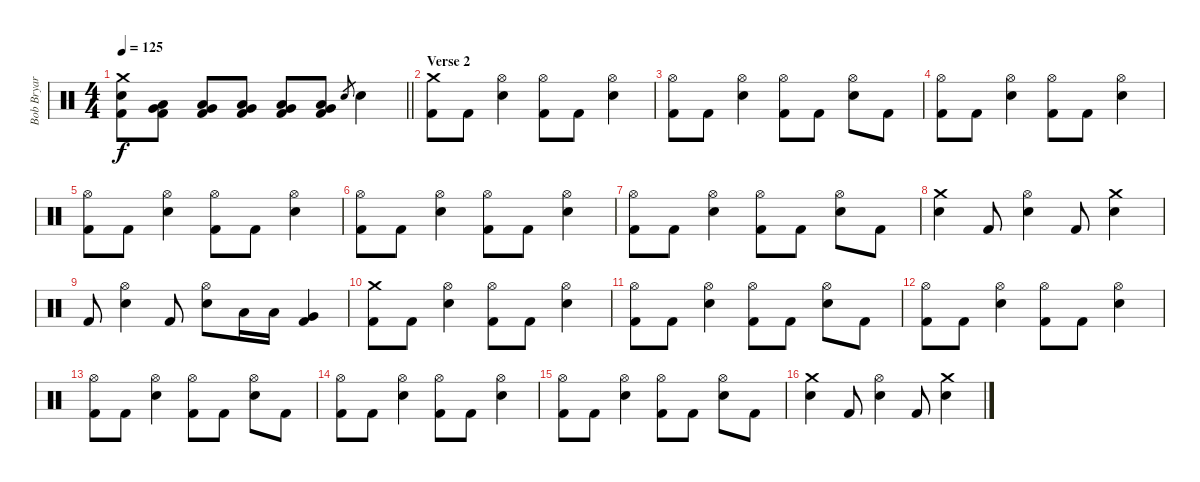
\track ("Bob Bryar" "Bob Bryar") {instrument percussion}
\staff {score}
\articulation defaults
\ts (4 4)
\tempo 125
\clef neutral
\barLineRight lightlight
\ks c
("Crash medium (hit)" "Electric Snare (hit)" "Kick (hit) 2").8{dy f} ("Very Low Tom (hit)" "Low Floor Tom (hit)" "Kick (hit) 2").8 ("Very Low Tom (hit)" "Low Floor Tom (hit)" "Kick (hit) 2").8 ("Very Low Tom (hit)" "Low Floor Tom (hit)" "Kick (hit) 2").8 ("Very Low Tom (hit)" "Low Floor Tom (hit)" "Kick (hit) 2").8 ("Very Low Tom (hit)" "Low Floor Tom (hit)" "Kick (hit) 2").8 "Electric Snare (hit)".8{gr} "Electric Snare (hit)".4 |
\section ("" "Verse 2")
("Crash medium (hit)" "Kick (hit) 2").8 "Kick (hit) 2".8 ("Hi-Hat (open)" "Electric Snare (hit)").4 ("Hi-Hat (open)" "Kick (hit) 2").8 "Kick (hit) 2".8 ("Hi-Hat (open)" "Electric Snare (hit)").4 |
("Hi-Hat (open)" "Kick (hit) 2").8 "Kick (hit) 2".8 ("Hi-Hat (open)" "Electric Snare (hit)").4 ("Hi-Hat (open)" "Kick (hit) 2").8 "Kick (hit) 2".8 ("Hi-Hat (open)" "Electric Snare (hit)").8 "Kick (hit) 2".8 |
("Hi-Hat (open)" "Kick (hit) 2").8 "Kick (hit) 2".8 ("Hi-Hat (open)" "Electric Snare (hit)").4 ("Hi-Hat (open)" "Kick (hit) 2").8 "Kick (hit) 2".8 ("Hi-Hat (open)" "Electric Snare (hit)").4 |
("Hi-Hat (open)" "Kick (hit) 2").8 "Kick (hit) 2".8 ("Hi-Hat (open)" "Electric Snare (hit)").4 ("Hi-Hat (open)" "Kick (hit) 2").8 "Kick (hit) 2".8 ("Hi-Hat (open)" "Electric Snare (hit)").4 |
("Hi-Hat (open)" "Kick (hit) 2").8 "Kick (hit) 2".8 ("Hi-Hat (open)" "Electric Snare (hit)").4 ("Hi-Hat (open)" "Kick (hit) 2").8 "Kick (hit) 2".8 ("Hi-Hat (open)" "Electric Snare (hit)").4 |
("Hi-Hat (open)" "Kick (hit) 2").8 "Kick (hit) 2".8 ("Hi-Hat (open)" "Electric Snare (hit)").4 ("Hi-Hat (open)" "Kick (hit) 2").8 "Kick (hit) 2".8 ("Hi-Hat (open)" "Electric Snare (hit)").8 "Kick (hit) 2".8 |
("Crash medium (hit)" "Electric Snare (hit)").4 "Kick (hit) 2".8 ("Hi-Hat (open)" "Electric Snare (hit)").4 "Kick (hit) 2".8 ("Crash medium (hit)" "Electric Snare (hit)").4 |
"Kick (hit) 2".8 ("Hi-Hat (open)" "Electric Snare (hit)").4 "Kick (hit) 2".8 ("Hi-Hat (open)" "Electric Snare (hit)").8 "Low Floor Tom (hit)".16 "Low Floor Tom (hit)".16 ("Very Low Tom (hit)" "Kick (hit) 2").4 |
("Crash medium (hit)" "Kick (hit) 2").8 "Kick (hit) 2".8 ("Hi-Hat (open)" "Electric Snare (hit)").4 ("Hi-Hat (open)" "Kick (hit) 2").8 "Kick (hit) 2".8 ("Hi-Hat (open)" "Electric Snare (hit)").4 |
("Hi-Hat (open)" "Kick (hit) 2").8 "Kick (hit) 2".8 ("Hi-Hat (open)" "Electric Snare (hit)").4 ("Hi-Hat (open)" "Kick (hit) 2").8 "Kick (hit) 2".8 ("Hi-Hat (open)" "Electric Snare (hit)").8 "Kick (hit) 2".8 |
("Hi-Hat (open)" "Kick (hit) 2").8 "Kick (hit) 2".8 ("Hi-Hat (open)" "Electric Snare (hit)").4 ("Hi-Hat (open)" "Kick (hit) 2").8 "Kick (hit) 2".8 ("Hi-Hat (open)" "Electric Snare (hit)").4 |
("Hi-Hat (open)" "Kick (hit) 2").8 "Kick (hit) 2".8 ("Hi-Hat (open)" "Electric Snare (hit)").4 ("Hi-Hat (open)" "Kick (hit) 2").8 "Kick (hit) 2".8 ("Hi-Hat (open)" "Electric Snare (hit)").8 "Kick (hit) 2".8 |
("Hi-Hat (open)" "Kick (hit) 2").8 "Kick (hit) 2".8 ("Hi-Hat (open)" "Electric Snare (hit)").4 ("Hi-Hat (open)" "Kick (hit) 2").8 "Kick (hit) 2".8 ("Hi-Hat (open)" "Electric Snare (hit)").4 |
("Hi-Hat (open)" "Kick (hit) 2").8 "Kick (hit) 2".8 ("Hi-Hat (open)" "Electric Snare (hit)").4 ("Hi-Hat (open)" "Kick (hit) 2").8 "Kick (hit) 2".8 ("Hi-Hat (open)" "Electric Snare (hit)").8 "Kick (hit) 2".8 |
("Crash medium (hit)" "Electric Snare (hit)").4 "Kick (hit) 2".8 ("Hi-Hat (open)" "Electric Snare (hit)").4 "Kick (hit) 2".8 ("Crash medium (hit)" "Electric Snare (hit)").4
